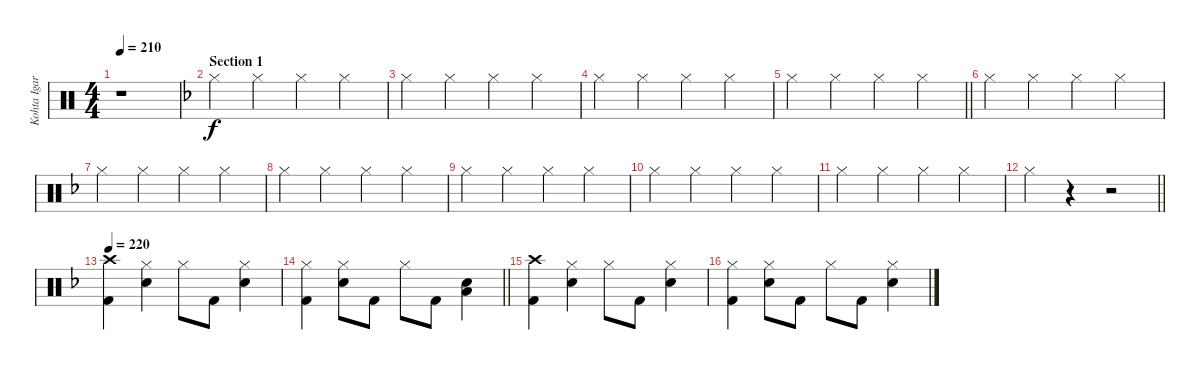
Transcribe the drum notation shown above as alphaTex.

\track ("Kohta Igarashi" "Kohta Igar") {instrument percussion}
\staff {score}
\articulation defaults
\ts (4 4)
\tempo 210
\tempo 105
\tempo 110
\tempo 210
\clef neutral
\ks c
r.1{dy f} |
\section ("" "Section 1")
\ks f "Hi-Hat (closed)".4 "Hi-Hat (closed)".4 "Hi-Hat (closed)".4 "Hi-Hat (closed)".4
|
"Hi-Hat (closed)".4 "Hi-Hat (closed)".4 "Hi-Hat (closed)".4 "Hi-Hat (closed)".4 |
"Hi-Hat (closed)".4 "Hi-Hat (closed)".4 "Hi-Hat (closed)".4 "Hi-Hat (closed)".4 |
\barLineRight lightlight "Hi-Hat (closed)".4 "Hi-Hat (closed)".4 "Hi-Hat (closed)".4 "Hi-Hat (closed)".4
|
"Hi-Hat (closed)".4 "Hi-Hat (closed)".4 "Hi-Hat (closed)".4 "Hi-Hat (closed)".4 |
"Hi-Hat (closed)".4 "Hi-Hat (closed)".4 "Hi-Hat (closed)".4 "Hi-Hat (closed)".4 |
"Hi-Hat (closed)".4 "Hi-Hat (closed)".4 "Hi-Hat (closed)".4 "Hi-Hat (closed)".4 |
"Hi-Hat (closed)".4 "Hi-Hat (closed)".4 "Hi-Hat (closed)".4 "Hi-Hat (closed)".4 |
"Hi-Hat (closed)".4 "Hi-Hat (closed)".4 "Hi-Hat (closed)".4 "Hi-Hat (closed)".4 |
"Hi-Hat (closed)".4 "Hi-Hat (closed)".4 "Hi-Hat (closed)".4 "Hi-Hat (closed)".4 |
\barLineRight lightlight "Hi-Hat (closed)".4
r.4 r.2 |
\tempo 220
("Crash high (hit)" "Kick (hit) 2").4 ("Hi-Hat (closed)" "Electric Snare (hit)").4 "Hi-Hat (closed)".8 "Kick (hit) 2".8 ("Hi-Hat (closed)" "Electric Snare (hit)").4 |
\barLineRight lightlight
("Hi-Hat (closed)" "Kick (hit) 2").4 ("Hi-Hat (closed)" "Electric Snare (hit)").8 "Kick (hit) 2".8 "Hi-Hat (closed)".8 "Kick (hit) 2".8 ("Electric Snare (hit)" "Low Floor Tom (hit)").4 |
("Crash high (hit)" "Kick (hit) 2").4 ("Hi-Hat (closed)" "Electric Snare (hit)").4 "Hi-Hat (closed)".8 "Kick (hit) 2".8 ("Hi-Hat (closed)" "Electric Snare (hit)").4 |
("Hi-Hat (closed)" "Kick (hit) 2").4 ("Hi-Hat (closed)" "Electric Snare (hit)").8 "Kick (hit) 2".8 "Hi-Hat (closed)".8 "Kick (hit) 2".8 ("Hi-Hat (closed)" "Electric Snare (hit)").4
